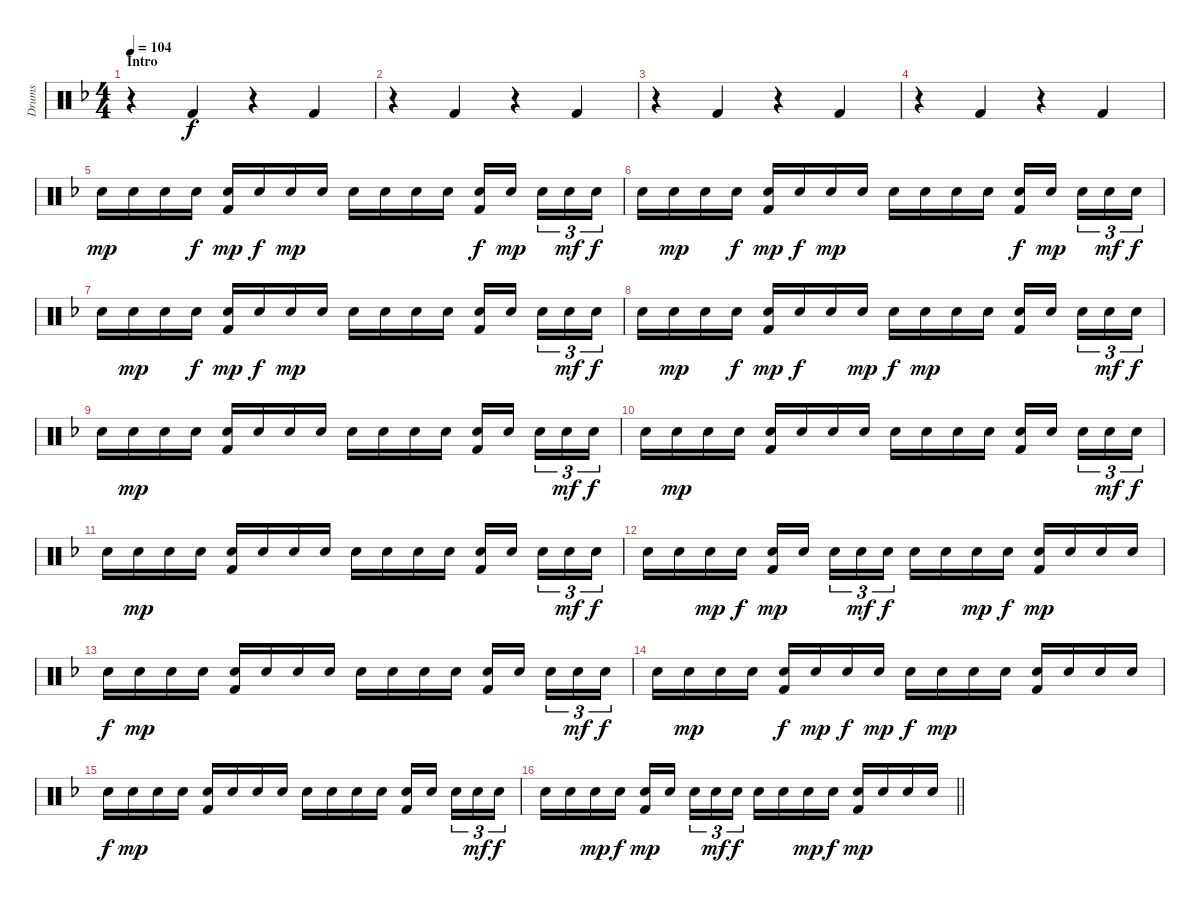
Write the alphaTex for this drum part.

\track ("Drums" "Drums") {instrument percussion}
\staff {score}
\articulation defaults
\ts (4 4)
\section ("" "Intro")
\tempo 104
\clef neutral
\ks dminor
r.4{dy f} "Kick (hit) 2".4 r.4 "Kick (hit) 2".4 |
r.4 "Kick (hit) 2".4 r.4 "Kick (hit) 2".4 |
r.4 "Kick (hit) 2".4 r.4 "Kick (hit) 2".4 |
r.4 "Kick (hit) 2".4 r.4 "Kick (hit) 2".4 |
"Snare (hit) 2".16{dy mp} "Snare (hit) 2".16 "Snare (hit) 2".16 "Snare (hit) 2".16{dy f} ("Snare (hit) 2" "Kick (hit) 2").16{dy mp} "Snare (hit) 2".16{dy f} "Snare (hit) 2".16{dy mp} "Snare (hit) 2".16 "Snare (hit) 2".16 "Snare (hit) 2".16 "Snare (hit) 2".16 "Snare (hit) 2".16 ("Snare (hit) 2" "Kick (hit) 2").16{dy f} "Snare (hit) 2".16{dy mp beam splitsecondary} "Snare (hit) 2".16{tu (3 2)} "Snare (hit) 2".16{tu (3 2) dy mf} "Snare (hit) 2".16{tu (3 2) dy f} |
"Snare (hit) 2".16 "Snare (hit) 2".16{dy mp} "Snare (hit) 2".16 "Snare (hit) 2".16{dy f} ("Snare (hit) 2" "Kick (hit) 2").16{dy mp} "Snare (hit) 2".16{dy f} "Snare (hit) 2".16{dy mp} "Snare (hit) 2".16 "Snare (hit) 2".16 "Snare (hit) 2".16 "Snare (hit) 2".16 "Snare (hit) 2".16 ("Snare (hit) 2" "Kick (hit) 2").16{dy f} "Snare (hit) 2".16{dy mp beam splitsecondary} "Snare (hit) 2".16{tu (3 2)} "Snare (hit) 2".16{tu (3 2) dy mf} "Snare (hit) 2".16{tu (3 2) dy f} |
"Snare (hit) 2".16 "Snare (hit) 2".16{dy mp} "Snare (hit) 2".16 "Snare (hit) 2".16{dy f} ("Snare (hit) 2" "Kick (hit) 2").16{dy mp} "Snare (hit) 2".16{dy f} "Snare (hit) 2".16{dy mp} "Snare (hit) 2".16 "Snare (hit) 2".16 "Snare (hit) 2".16 "Snare (hit) 2".16 "Snare (hit) 2".16 ("Snare (hit) 2" "Kick (hit) 2").16 "Snare (hit) 2".16{beam splitsecondary} "Snare (hit) 2".16{tu (3 2)} "Snare (hit) 2".16{tu (3 2) dy mf} "Snare (hit) 2".16{tu (3 2) dy f} |
"Snare (hit) 2".16 "Snare (hit) 2".16{dy mp} "Snare (hit) 2".16 "Snare (hit) 2".16{dy f} ("Snare (hit) 2" "Kick (hit) 2").16{dy mp} "Snare (hit) 2".16{dy f} "Snare (hit) 2".16 "Snare (hit) 2".16{dy mp} "Snare (hit) 2".16{dy f} "Snare (hit) 2".16{dy mp} "Snare (hit) 2".16 "Snare (hit) 2".16 ("Snare (hit) 2" "Kick (hit) 2").16 "Snare (hit) 2".16{beam splitsecondary} "Snare (hit) 2".16{tu (3 2)} "Snare (hit) 2".16{tu (3 2) dy mf} "Snare (hit) 2".16{tu (3 2) dy f} |
"Snare (hit) 2".16 "Snare (hit) 2".16{dy mp} "Snare (hit) 2".16 "Snare (hit) 2".16 ("Snare (hit) 2" "Kick (hit) 2").16 "Snare (hit) 2".16 "Snare (hit) 2".16 "Snare (hit) 2".16 "Snare (hit) 2".16 "Snare (hit) 2".16 "Snare (hit) 2".16 "Snare (hit) 2".16 ("Snare (hit) 2" "Kick (hit) 2").16 "Snare (hit) 2".16{beam splitsecondary} "Snare (hit) 2".16{tu (3 2)} "Snare (hit) 2".16{tu (3 2) dy mf} "Snare (hit) 2".16{tu (3 2) dy f} |
"Snare (hit) 2".16 "Snare (hit) 2".16{dy mp} "Snare (hit) 2".16 "Snare (hit) 2".16 ("Snare (hit) 2" "Kick (hit) 2").16 "Snare (hit) 2".16 "Snare (hit) 2".16 "Snare (hit) 2".16 "Snare (hit) 2".16 "Snare (hit) 2".16 "Snare (hit) 2".16 "Snare (hit) 2".16 ("Snare (hit) 2" "Kick (hit) 2").16 "Snare (hit) 2".16{beam splitsecondary} "Snare (hit) 2".16{tu (3 2)} "Snare (hit) 2".16{tu (3 2) dy mf} "Snare (hit) 2".16{tu (3 2) dy f} |
"Snare (hit) 2".16 "Snare (hit) 2".16{dy mp} "Snare (hit) 2".16 "Snare (hit) 2".16 ("Snare (hit) 2" "Kick (hit) 2").16 "Snare (hit) 2".16 "Snare (hit) 2".16 "Snare (hit) 2".16 "Snare (hit) 2".16 "Snare (hit) 2".16 "Snare (hit) 2".16 "Snare (hit) 2".16 ("Snare (hit) 2" "Kick (hit) 2").16 "Snare (hit) 2".16{beam splitsecondary} "Snare (hit) 2".16{tu (3 2)} "Snare (hit) 2".16{tu (3 2) dy mf} "Snare (hit) 2".16{tu (3 2) dy f} |
"Snare (hit) 2".16 "Snare (hit) 2".16 "Snare (hit) 2".16{dy mp} "Snare (hit) 2".16{dy f} ("Snare (hit) 2" "Kick (hit) 2").16{dy mp} "Snare (hit) 2".16{beam splitsecondary} "Snare (hit) 2".16{tu (3 2)} "Snare (hit) 2".16{tu (3 2) dy mf} "Snare (hit) 2".16{tu (3 2) dy f} "Snare (hit) 2".16 "Snare (hit) 2".16 "Snare (hit) 2".16{dy mp} "Snare (hit) 2".16{dy f} ("Snare (hit) 2" "Kick (hit) 2").16{dy mp} "Snare (hit) 2".16 "Snare (hit) 2".16 "Snare (hit) 2".16 |
"Snare (hit) 2".16{dy f} "Snare (hit) 2".16{dy mp} "Snare (hit) 2".16 "Snare (hit) 2".16 ("Snare (hit) 2" "Kick (hit) 2").16 "Snare (hit) 2".16 "Snare (hit) 2".16 "Snare (hit) 2".16 "Snare (hit) 2".16 "Snare (hit) 2".16 "Snare (hit) 2".16 "Snare (hit) 2".16 ("Snare (hit) 2" "Kick (hit) 2").16 "Snare (hit) 2".16{beam splitsecondary} "Snare (hit) 2".16{tu (3 2)} "Snare (hit) 2".16{tu (3 2) dy mf} "Snare (hit) 2".16{tu (3 2) dy f} |
"Snare (hit) 2".16 "Snare (hit) 2".16{dy mp} "Snare (hit) 2".16 "Snare (hit) 2".16 ("Snare (hit) 2" "Kick (hit) 2").16{dy f} "Snare (hit) 2".16{dy mp} "Snare (hit) 2".16{dy f} "Snare (hit) 2".16{dy mp} "Snare (hit) 2".16{dy f} "Snare (hit) 2".16{dy mp} "Snare (hit) 2".16 "Snare (hit) 2".16 ("Snare (hit) 2" "Kick (hit) 2").16 "Snare (hit) 2".16 "Snare (hit) 2".16 "Snare (hit) 2".16 |
"Snare (hit) 2".16{dy f} "Snare (hit) 2".16{dy mp} "Snare (hit) 2".16 "Snare (hit) 2".16 ("Snare (hit) 2" "Kick (hit) 2").16 "Snare (hit) 2".16 "Snare (hit) 2".16 "Snare (hit) 2".16 "Snare (hit) 2".16 "Snare (hit) 2".16 "Snare (hit) 2".16 "Snare (hit) 2".16 ("Snare (hit) 2" "Kick (hit) 2").16 "Snare (hit) 2".16{beam splitsecondary} "Snare (hit) 2".16{tu (3 2)} "Snare (hit) 2".16{tu (3 2) dy mf} "Snare (hit) 2".16{tu (3 2) dy f} |
\barLineRight lightlight "Snare (hit) 2".16 "Snare (hit) 2".16 "Snare (hit) 2".16{dy mp} "Snare (hit) 2".16{dy f}
("Snare (hit) 2" "Kick (hit) 2").16{dy mp} "Snare (hit) 2".16{beam splitsecondary} "Snare (hit) 2".16{tu (3 2)} "Snare (hit) 2".16{tu (3 2) dy mf} "Snare (hit) 2".16{tu (3 2) dy f} "Snare (hit) 2".16 "Snare (hit) 2".16 "Snare (hit) 2".16{dy mp} "Snare (hit) 2".16{dy f} ("Snare (hit) 2" "Kick (hit) 2").16{dy mp} "Snare (hit) 2".16 "Snare (hit) 2".16 "Snare (hit) 2".16
